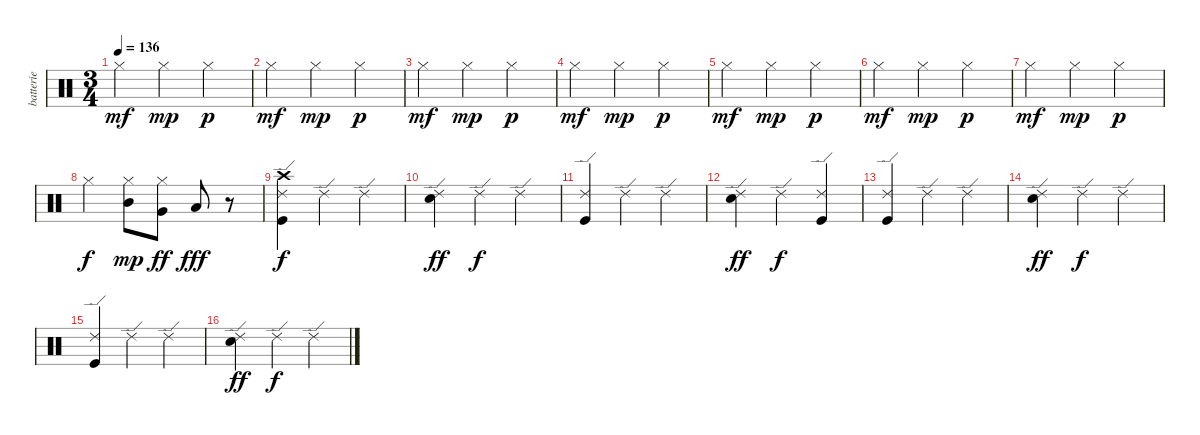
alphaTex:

\track ("batterie" "batterie") {instrument percussion}
\staff {score}
\articulation defaults
\ts (3 4)
\tempo 136
\clef neutral
\ks c "Hi-Hat (closed)".4{dy mf} "Hi-Hat (closed)".4{dy mp} "Hi-Hat (closed)".4{dy p}
|
"Hi-Hat (closed)".4{dy mf} "Hi-Hat (closed)".4{dy mp} "Hi-Hat (closed)".4{dy p} |
"Hi-Hat (closed)".4{dy mf} "Hi-Hat (closed)".4{dy mp} "Hi-Hat (closed)".4{dy p} |
"Hi-Hat (closed)".4{dy mf} "Hi-Hat (closed)".4{dy mp} "Hi-Hat (closed)".4{dy p} |
"Hi-Hat (closed)".4{dy mf} "Hi-Hat (closed)".4{dy mp} "Hi-Hat (closed)".4{dy p} |
"Hi-Hat (closed)".4{dy mf} "Hi-Hat (closed)".4{dy mp} "Hi-Hat (closed)".4{dy p} |
"Hi-Hat (closed)".4{dy mf} "Hi-Hat (closed)".4{dy mp} "Hi-Hat (closed)".4{dy p} |
"Hi-Hat (closed)".4{dy f} ("Hi-Hat (closed)" "Mid Tom (hit)").8{dy mp} ("Hi-Hat (closed)" "Very Low Tom (hit)").8{dy ff} "Low Floor Tom (hit)".8{dy fff} r.8 |
("Kick (hit)" "Ride (edge) 2" "Crash high (hit)").4{dy f} "Ride (edge) 2".4 "Ride (edge) 2".4 |
("Electric Snare (hit)" "Ride (edge) 2").4{dy ff} "Ride (edge) 2".4{dy f} "Ride (edge) 2".4 |
("Kick (hit)" "Ride (edge) 2").4 "Ride (edge) 2".4 "Ride (edge) 2".4 |
("Electric Snare (hit)" "Ride (edge) 2").4{dy ff} "Ride (edge) 2".4{dy f} ("Kick (hit)" "Ride (edge) 2").4 |
("Kick (hit)" "Ride (edge) 2").4 "Ride (edge) 2".4 "Ride (edge) 2".4 |
("Electric Snare (hit)" "Ride (edge) 2").4{dy ff} "Ride (edge) 2".4{dy f} "Ride (edge) 2".4 |
("Kick (hit)" "Ride (edge) 2").4 "Ride (edge) 2".4 "Ride (edge) 2".4 |
("Electric Snare (hit)" "Ride (edge) 2").4{dy ff} "Ride (edge) 2".4{dy f} "Ride (edge) 2".4
